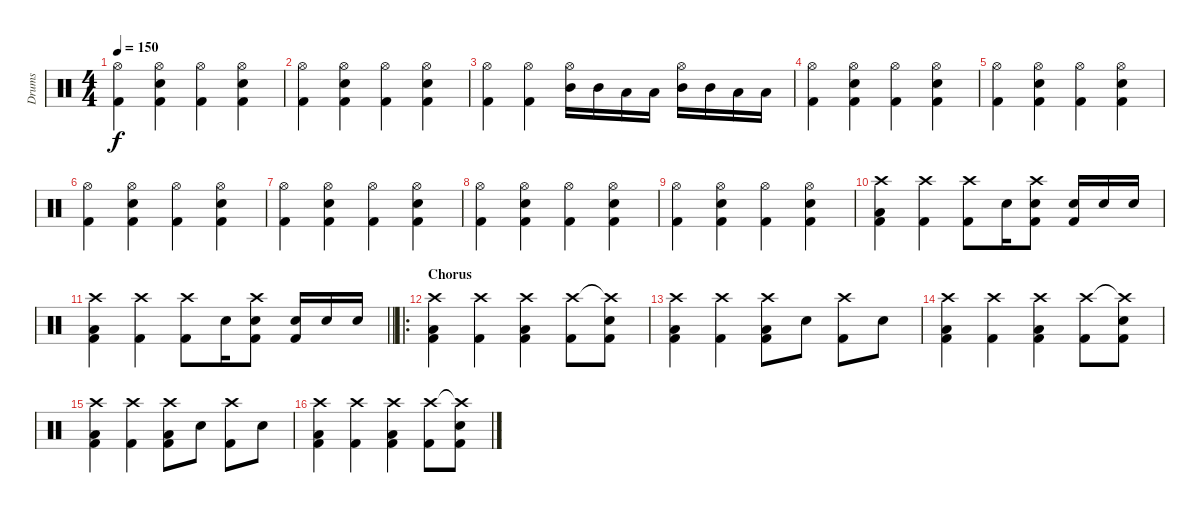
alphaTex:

\track ("Drums" "Drums") {instrument percussion}
\staff {score}
\articulation defaults
\ts (4 4)
\tempo 150
\clef neutral
\ks c
("Hi-Hat (open)" "Kick (hit) 2").4{dy f} ("Hi-Hat (open)" "Kick (hit) 2" "Electric Snare (hit)").4 ("Hi-Hat (open)" "Kick (hit) 2").4 ("Hi-Hat (open)" "Kick (hit) 2" "Electric Snare (hit)").4 |
("Hi-Hat (open)" "Kick (hit) 2").4 ("Hi-Hat (open)" "Kick (hit) 2" "Electric Snare (hit)").4 ("Hi-Hat (open)" "Kick (hit) 2").4 ("Hi-Hat (open)" "Kick (hit) 2" "Electric Snare (hit)").4 |
("Hi-Hat (open)" "Kick (hit) 2").4 ("Hi-Hat (open)" "Kick (hit) 2").4 ("Hi-Hat (open)" "Mid Tom (hit)").16 "Mid Tom (hit)".16 "Low Tom (hit)".16 "Low Tom (hit)".16 ("Hi-Hat (open)" "Mid Tom (hit)").16 "Mid Tom (hit)".16 "Low Tom (hit)".16 "Low Tom (hit)".16 |
("Hi-Hat (open)" "Kick (hit) 2").4 ("Hi-Hat (open)" "Kick (hit) 2" "Electric Snare (hit)").4 ("Hi-Hat (open)" "Kick (hit) 2").4 ("Hi-Hat (open)" "Kick (hit) 2" "Electric Snare (hit)").4 |
("Hi-Hat (open)" "Kick (hit) 2").4 ("Hi-Hat (open)" "Kick (hit) 2" "Electric Snare (hit)").4 ("Hi-Hat (open)" "Kick (hit) 2").4 ("Hi-Hat (open)" "Kick (hit) 2" "Electric Snare (hit)").4 |
("Hi-Hat (open)" "Kick (hit) 2").4 ("Hi-Hat (open)" "Kick (hit) 2" "Electric Snare (hit)").4 ("Hi-Hat (open)" "Kick (hit) 2").4 ("Hi-Hat (open)" "Kick (hit) 2" "Electric Snare (hit)").4 |
("Hi-Hat (open)" "Kick (hit) 2").4 ("Hi-Hat (open)" "Kick (hit) 2" "Electric Snare (hit)").4 ("Hi-Hat (open)" "Kick (hit) 2").4 ("Hi-Hat (open)" "Kick (hit) 2" "Electric Snare (hit)").4 |
("Hi-Hat (open)" "Kick (hit) 2").4 ("Hi-Hat (open)" "Kick (hit) 2" "Electric Snare (hit)").4 ("Hi-Hat (open)" "Kick (hit) 2").4 ("Hi-Hat (open)" "Kick (hit) 2" "Electric Snare (hit)").4 |
("Hi-Hat (open)" "Kick (hit) 2").4 ("Hi-Hat (open)" "Kick (hit) 2" "Electric Snare (hit)").4 ("Hi-Hat (open)" "Kick (hit) 2").4 ("Hi-Hat (open)" "Kick (hit) 2" "Electric Snare (hit)").4 |
("Crash high (hit)" "Kick (hit) 2" "Low Tom (hit)").4 ("Crash high (hit)" "Kick (hit) 2").4 ("Crash high (hit)" "Kick (hit) 2").8 "Electric Snare (hit)".16 ("Crash high (hit)" "Kick (hit) 2" "Electric Snare (hit)").8 ("Kick (hit) 2" "Electric Snare (hit)").16 "Electric Snare (hit)".16 "Electric Snare (hit)".16 |
\barLineRight lightlight
("Crash high (hit)" "Kick (hit) 2" "Low Tom (hit)").4 ("Crash high (hit)" "Kick (hit) 2").4 ("Crash high (hit)" "Kick (hit) 2").8 "Electric Snare (hit)".16 ("Crash high (hit)" "Kick (hit) 2" "Electric Snare (hit)").8 ("Kick (hit) 2" "Electric Snare (hit)").16 "Electric Snare (hit)".16 "Electric Snare (hit)".16 |
\ro
\section ("" "Chorus")
("Crash high (hit)" "Kick (hit) 2" "Low Tom (hit)").4 ("Crash high (hit)" "Kick (hit) 2").4 ("Crash high (hit)" "Kick (hit) 2" "Low Tom (hit)").4 ("Crash high (hit)" "Kick (hit) 2").8 ("Crash high (hit)"{t} "Kick (hit) 2" "Electric Snare (hit)").8 |
("Crash high (hit)" "Kick (hit) 2" "Low Tom (hit)").4 ("Crash high (hit)" "Kick (hit) 2").4 ("Crash high (hit)" "Kick (hit) 2" "Low Tom (hit)").8 "Electric Snare (hit)".8 ("Crash high (hit)" "Kick (hit) 2").8 "Electric Snare (hit)".8 |
("Crash high (hit)" "Kick (hit) 2" "Low Tom (hit)").4 ("Crash high (hit)" "Kick (hit) 2").4 ("Crash high (hit)" "Kick (hit) 2" "Low Tom (hit)").4 ("Crash high (hit)" "Kick (hit) 2").8 ("Crash high (hit)"{t} "Kick (hit) 2" "Electric Snare (hit)").8 |
("Crash high (hit)" "Kick (hit) 2" "Low Tom (hit)").4 ("Crash high (hit)" "Kick (hit) 2").4 ("Crash high (hit)" "Kick (hit) 2" "Low Tom (hit)").8 "Electric Snare (hit)".8 ("Crash high (hit)" "Kick (hit) 2").8 "Electric Snare (hit)".8 |
("Crash high (hit)" "Kick (hit) 2" "Low Tom (hit)").4 ("Crash high (hit)" "Kick (hit) 2").4 ("Crash high (hit)" "Kick (hit) 2" "Low Tom (hit)").4 ("Crash high (hit)" "Kick (hit) 2").8 ("Crash high (hit)"{t} "Kick (hit) 2" "Electric Snare (hit)").8
